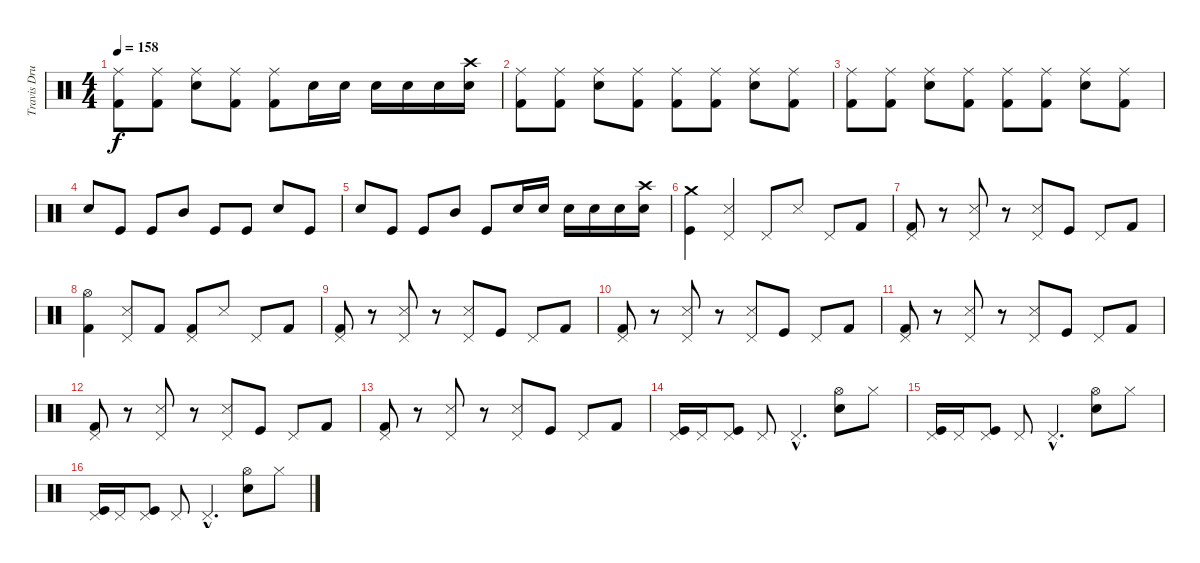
\track ("Travis Drums" "Travis Dru") {instrument percussion}
\staff {score}
\articulation defaults
\ts (4 4)
\tempo 158
\clef neutral
\ks c
("Ride (middle)" "Kick (hit) 2").8{dy f} ("Ride (middle)" "Kick (hit) 2").8 ("Ride (middle)" "Snare (hit) 2").8 ("Ride (middle)" "Kick (hit) 2").8 ("Ride (middle)" "Kick (hit) 2").8 "Snare (hit) 2".16 "Snare (hit) 2".16 "Snare (hit) 2".16 "Snare (hit) 2".16 "Snare (hit) 2".16 ("Snare (hit) 2" "Crash high (hit)").16 |
("Ride (middle)" "Kick (hit) 2").8 ("Ride (middle)" "Kick (hit) 2").8 ("Ride (middle)" "Snare (hit) 2").8 ("Ride (middle)" "Kick (hit) 2").8 ("Ride (middle)" "Kick (hit) 2").8 ("Ride (middle)" "Kick (hit) 2").8 ("Ride (middle)" "Snare (hit) 2").8 ("Ride (middle)" "Kick (hit) 2").8 |
("Ride (middle)" "Kick (hit) 2").8 ("Ride (middle)" "Kick (hit) 2").8 ("Ride (middle)" "Snare (hit) 2").8 ("Ride (middle)" "Kick (hit) 2").8 ("Ride (middle)" "Kick (hit) 2").8 ("Ride (middle)" "Kick (hit) 2").8 ("Ride (middle)" "Snare (hit) 2").8 ("Ride (middle)" "Kick (hit) 2").8 |
"Snare (hit) 2".8 "Kick (hit)".8 "Kick (hit)".8 "Mid Tom (hit)".8 "Kick (hit)".8 "Kick (hit)".8 "Snare (hit) 2".8 "Kick (hit)".8 |
"Snare (hit) 2".8 "Kick (hit)".8 "Kick (hit)".8 "Mid Tom (hit)".8 "Kick (hit)".8 "Snare (hit) 2".16 "Snare (hit) 2".16 "Snare (hit) 2".16 "Snare (hit) 2".16 "Snare (hit) 2".16 ("Snare (hit) 2" "Crash high (hit)").16 |
("Crash medium (hit)" "Kick (hit)").4 ("Pedal Hi-Hat (hit)" "Snare (side stick) 3").4 "Pedal Hi-Hat (hit)".8 "Snare (side stick) 3".8 "Pedal Hi-Hat (hit)".8 "Kick (hit) 2".8 |
("Pedal Hi-Hat (hit)" "Kick (hit) 2").8 r.8 ("Pedal Hi-Hat (hit)" "Snare (side stick) 3").8 r.8 ("Pedal Hi-Hat (hit)" "Snare (side stick) 3").8 "Kick (hit)".8 "Pedal Hi-Hat (hit)".8 "Kick (hit) 2".8 |
("Hi-Hat (open)" "Kick (hit) 2").4 ("Pedal Hi-Hat (hit)" "Snare (side stick) 3").8 "Kick (hit) 2".8 ("Pedal Hi-Hat (hit)" "Kick (hit) 2").8 "Snare (side stick) 3".8 "Pedal Hi-Hat (hit)".8 "Kick (hit) 2".8 |
("Pedal Hi-Hat (hit)" "Kick (hit) 2").8 r.8 ("Pedal Hi-Hat (hit)" "Snare (side stick) 3").8 r.8 ("Pedal Hi-Hat (hit)" "Snare (side stick) 3").8 "Kick (hit)".8 "Pedal Hi-Hat (hit)".8 "Kick (hit) 2".8 |
("Pedal Hi-Hat (hit)" "Kick (hit) 2").8 r.8 ("Pedal Hi-Hat (hit)" "Snare (side stick) 3").8 r.8 ("Pedal Hi-Hat (hit)" "Snare (side stick) 3").8 "Kick (hit)".8 "Pedal Hi-Hat (hit)".8 "Kick (hit) 2".8 |
("Pedal Hi-Hat (hit)" "Kick (hit) 2").8 r.8 ("Pedal Hi-Hat (hit)" "Snare (side stick) 3").8 r.8 ("Pedal Hi-Hat (hit)" "Snare (side stick) 3").8 "Kick (hit)".8 "Pedal Hi-Hat (hit)".8 "Kick (hit) 2".8 |
("Pedal Hi-Hat (hit)" "Kick (hit) 2").8 r.8 ("Pedal Hi-Hat (hit)" "Snare (side stick) 3").8 r.8 ("Pedal Hi-Hat (hit)" "Snare (side stick) 3").8 "Kick (hit)".8 "Pedal Hi-Hat (hit)".8 "Kick (hit) 2".8 |
("Pedal Hi-Hat (hit)" "Kick (hit) 2").8 r.8 ("Pedal Hi-Hat (hit)" "Snare (side stick) 3").8 r.8 ("Pedal Hi-Hat (hit)" "Snare (side stick) 3").8 "Kick (hit)".8 "Pedal Hi-Hat (hit)".8 "Kick (hit) 2".8 |
("Pedal Hi-Hat (hit)" "Kick (hit)").16 "Pedal Hi-Hat (hit)".16 ("Pedal Hi-Hat (hit)" "Kick (hit)").8 "Pedal Hi-Hat (hit)".8 "Pedal Hi-Hat (hit)"{hac}.4{d} ("Snare (hit) 2" "Hi-Hat (open)").8 "Hi-Hat (closed)".8 |
("Pedal Hi-Hat (hit)" "Kick (hit)").16 "Pedal Hi-Hat (hit)".16 ("Pedal Hi-Hat (hit)" "Kick (hit)").8 "Pedal Hi-Hat (hit)".8 "Pedal Hi-Hat (hit)"{hac}.4{d} ("Snare (hit) 2" "Hi-Hat (open)").8 "Hi-Hat (closed)".8 |
("Pedal Hi-Hat (hit)" "Kick (hit)").16 "Pedal Hi-Hat (hit)".16 ("Pedal Hi-Hat (hit)" "Kick (hit)").8 "Pedal Hi-Hat (hit)".8 "Pedal Hi-Hat (hit)"{hac}.4{d} ("Snare (hit) 2" "Hi-Hat (open)").8 "Hi-Hat (closed)".8
